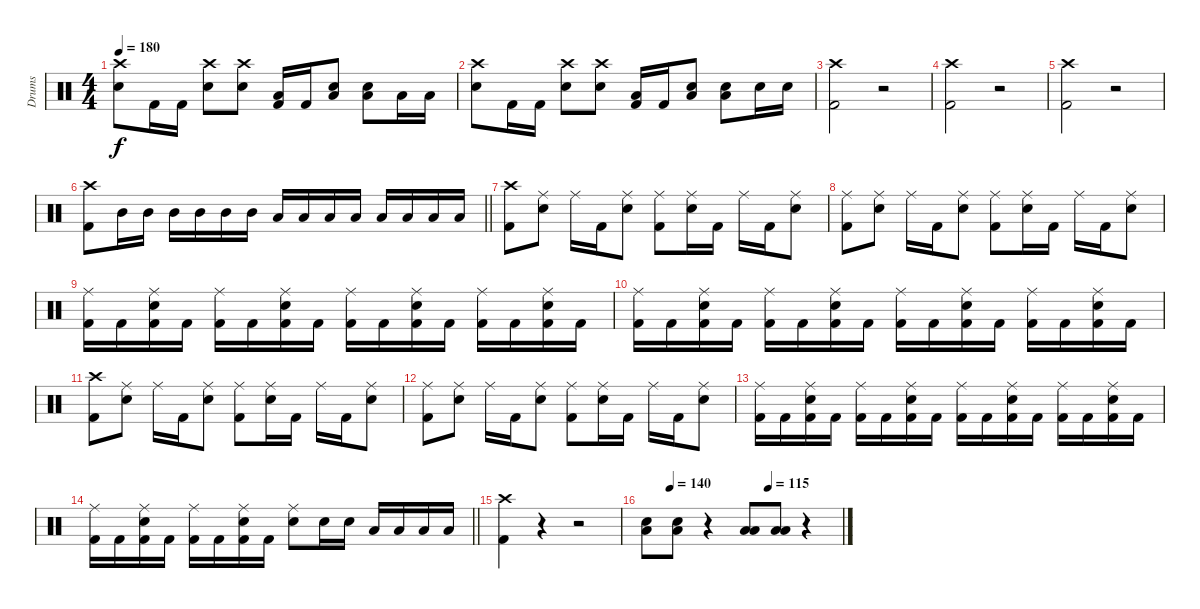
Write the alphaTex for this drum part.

\track ("Drums" "Drums") {instrument percussion}
\staff {score}
\articulation defaults
\ts (4 4)
\tempo 180
\clef neutral
\ks c
("Crash high (hit)" "Snare (hit) 2").8{dy f} "Kick (hit) 2".16 "Kick (hit) 2".16 ("Crash high (hit)" "Snare (hit) 2").8 ("Crash high (hit)" "Snare (hit) 2").8 ("Low Tom (hit)" "Kick (hit) 2").16 "Kick (hit) 2".16 ("Snare (hit) 2" "Low Floor Tom (hit)").8 ("Snare (hit) 2" "Low Floor Tom (hit)").8 "Low Floor Tom (hit)".16 "Low Floor Tom (hit)".16 |
("Crash high (hit)" "Snare (hit) 2").8 "Kick (hit) 2".16 "Kick (hit) 2".16 ("Crash high (hit)" "Snare (hit) 2").8 ("Crash high (hit)" "Snare (hit) 2").8 ("Low Tom (hit)" "Kick (hit) 2").16 "Kick (hit) 2".16 ("Snare (hit) 2" "Low Floor Tom (hit)").8 ("Snare (hit) 2" "Low Floor Tom (hit)").8 "Snare (hit) 2".16 "Snare (hit) 2".16 |
("Crash high (hit)" "Kick (hit) 2").2 r.2 |
("Crash high (hit)" "Kick (hit) 2").2 r.2 |
("Crash high (hit)" "Kick (hit) 2").2 r.2 |
\barLineRight lightlight
("Crash high (hit)" "Kick (hit) 2").8 "Mid Tom (hit)".16 "Mid Tom (hit)".16 "Mid Tom (hit)".16 "Mid Tom (hit)".16 "Mid Tom (hit)".16 "Mid Tom (hit)".16 "Low Tom (hit)".16 "Low Tom (hit)".16 "Low Tom (hit)".16 "Low Tom (hit)".16 "Low Floor Tom (hit)".16 "Low Floor Tom (hit)".16 "Low Floor Tom (hit)".16 "Low Floor Tom (hit)".16 |
("Crash high (hit)" "Kick (hit) 2").8 ("Ride (middle)" "Snare (hit) 2").8 "Ride (middle)".16 "Kick (hit) 2".16 ("Ride (middle)" "Snare (hit) 2").8 ("Ride (middle)" "Kick (hit) 2").8 ("Ride (middle)" "Snare (hit) 2").16 "Kick (hit) 2".16 "Ride (middle)".16 "Kick (hit) 2".16 ("Ride (middle)" "Snare (hit) 2").8 |
("Ride (middle)" "Kick (hit) 2").8 ("Ride (middle)" "Snare (hit) 2").8 "Ride (middle)".16 "Kick (hit) 2".16 ("Ride (middle)" "Snare (hit) 2").8 ("Ride (middle)" "Kick (hit) 2").8 ("Ride (middle)" "Snare (hit) 2").16 "Kick (hit) 2".16 "Ride (middle)".16 "Kick (hit) 2".16 ("Ride (middle)" "Snare (hit) 2").8 |
("Ride (middle)" "Kick (hit) 2").16 "Kick (hit) 2".16 ("Ride (middle)" "Snare (hit) 2" "Kick (hit) 2").16 "Kick (hit) 2".16 ("Ride (middle)" "Kick (hit) 2").16 "Kick (hit) 2".16 ("Ride (middle)" "Snare (hit) 2" "Kick (hit) 2").16 "Kick (hit) 2".16 ("Ride (middle)" "Kick (hit) 2").16 "Kick (hit) 2".16 ("Ride (middle)" "Snare (hit) 2" "Kick (hit) 2").16 "Kick (hit) 2".16 ("Ride (middle)" "Kick (hit) 2").16 "Kick (hit) 2".16 ("Ride (middle)" "Snare (hit) 2" "Kick (hit) 2").16 "Kick (hit) 2".16 |
("Ride (middle)" "Kick (hit) 2").16 "Kick (hit) 2".16 ("Ride (middle)" "Snare (hit) 2" "Kick (hit) 2").16 "Kick (hit) 2".16 ("Ride (middle)" "Kick (hit) 2").16 "Kick (hit) 2".16 ("Ride (middle)" "Snare (hit) 2" "Kick (hit) 2").16 "Kick (hit) 2".16 ("Ride (middle)" "Kick (hit) 2").16 "Kick (hit) 2".16 ("Ride (middle)" "Snare (hit) 2" "Kick (hit) 2").16 "Kick (hit) 2".16 ("Ride (middle)" "Kick (hit) 2").16 "Kick (hit) 2".16 ("Ride (middle)" "Snare (hit) 2" "Kick (hit) 2").16 "Kick (hit) 2".16 |
("Crash high (hit)" "Kick (hit) 2").8 ("Ride (middle)" "Snare (hit) 2").8 "Ride (middle)".16 "Kick (hit) 2".16 ("Ride (middle)" "Snare (hit) 2").8 ("Ride (middle)" "Kick (hit) 2").8 ("Ride (middle)" "Snare (hit) 2").16 "Kick (hit) 2".16 "Ride (middle)".16 "Kick (hit) 2".16 ("Ride (middle)" "Snare (hit) 2").8 |
("Ride (middle)" "Kick (hit) 2").8 ("Ride (middle)" "Snare (hit) 2").8 "Ride (middle)".16 "Kick (hit) 2".16 ("Ride (middle)" "Snare (hit) 2").8 ("Ride (middle)" "Kick (hit) 2").8 ("Ride (middle)" "Snare (hit) 2").16 "Kick (hit) 2".16 "Ride (middle)".16 "Kick (hit) 2".16 ("Ride (middle)" "Snare (hit) 2").8 |
("Ride (middle)" "Kick (hit) 2").16 "Kick (hit) 2".16 ("Ride (middle)" "Snare (hit) 2" "Kick (hit) 2").16 "Kick (hit) 2".16 ("Ride (middle)" "Kick (hit) 2").16 "Kick (hit) 2".16 ("Ride (middle)" "Snare (hit) 2" "Kick (hit) 2").16 "Kick (hit) 2".16 ("Ride (middle)" "Kick (hit) 2").16 "Kick (hit) 2".16 ("Ride (middle)" "Snare (hit) 2" "Kick (hit) 2").16 "Kick (hit) 2".16 ("Ride (middle)" "Kick (hit) 2").16 "Kick (hit) 2".16 ("Ride (middle)" "Snare (hit) 2" "Kick (hit) 2").16 "Kick (hit) 2".16 |
\barLineRight lightlight
("Ride (middle)" "Kick (hit) 2").16 "Kick (hit) 2".16 ("Ride (middle)" "Snare (hit) 2" "Kick (hit) 2").16 "Kick (hit) 2".16 ("Ride (middle)" "Kick (hit) 2").16 "Kick (hit) 2".16 ("Ride (middle)" "Snare (hit) 2" "Kick (hit) 2").16 "Kick (hit) 2".16 ("Ride (middle)" "Snare (hit) 2").8 "Snare (hit) 2".16 "Snare (hit) 2".16 "Low Tom (hit)".16 "Low Tom (hit)".16 "Low Floor Tom (hit)".16 "Low Floor Tom (hit)".16 |
("Crash high (hit)" "Kick (hit) 2").4 r.4 r.2 |
\tempo (140 0.125)
\tempo (115 0.625)
("Snare (hit) 2" "Low Floor Tom (hit)").8 ("Snare (hit) 2" "Low Floor Tom (hit)").8 r.4 ("Low Tom (hit)" "Low Floor Tom (hit)").8 ("Low Tom (hit)" "Low Floor Tom (hit)").8 r.4
